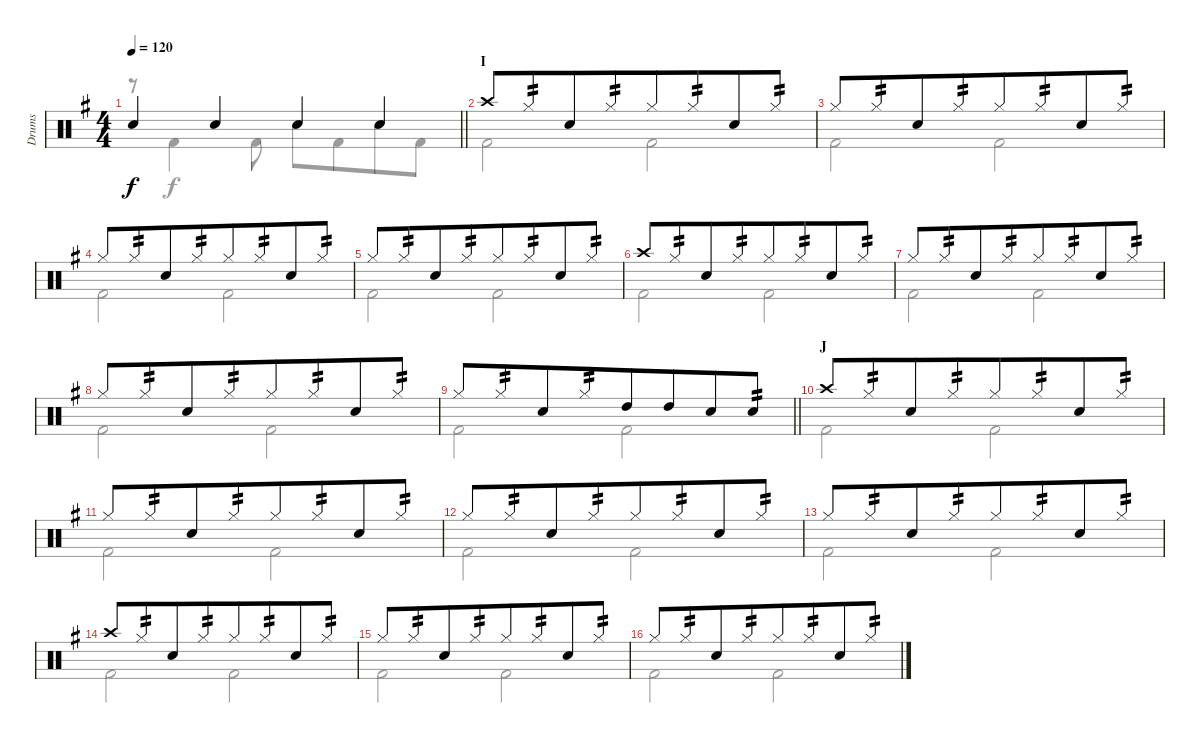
\track ("Drums" "Drums") {instrument percussion}
\staff {score}
\articulation defaults
\voice
\ts (4 4)
\tempo 120
\clef neutral
\barLineRight lightlight
\ks g "Snare (hit)"{t}.4{dy f beam merge} "Snare (hit) 2".4 "Snare (hit) 2".4 "Snare (hit) 2".4
|
\section ("" "I")
"Crash high (hit)".8 "Hi-Hat (closed)".8{tp 2 beam merge} "Snare (hit) 2".8 "Hi-Hat (closed)".8{tp 2 beam merge} "Hi-Hat (closed)".8 "Hi-Hat (closed)".8{tp 2 beam merge} "Snare (hit) 2".8 "Hi-Hat (closed)".8{tp 2} |
"Hi-Hat (closed)".8 "Hi-Hat (closed)".8{tp 2 beam merge} "Snare (hit) 2".8 "Hi-Hat (closed)".8{tp 2 beam merge} "Hi-Hat (closed)".8 "Hi-Hat (closed)".8{tp 2 beam merge} "Snare (hit) 2".8 "Hi-Hat (closed)".8{tp 2} |
"Hi-Hat (closed)".8 "Hi-Hat (closed)".8{tp 2 beam merge} "Snare (hit) 2".8 "Hi-Hat (closed)".8{tp 2 beam merge} "Hi-Hat (closed)".8 "Hi-Hat (closed)".8{tp 2 beam merge} "Snare (hit) 2".8 "Hi-Hat (closed)".8{tp 2} |
"Hi-Hat (closed)".8 "Hi-Hat (closed)".8{tp 2 beam merge} "Snare (hit) 2".8 "Hi-Hat (closed)".8{tp 2 beam merge} "Hi-Hat (closed)".8 "Hi-Hat (closed)".8{tp 2 beam merge} "Snare (hit) 2".8 "Hi-Hat (closed)".8{tp 2} |
"Crash high (hit)".8 "Hi-Hat (closed)".8{tp 2 beam merge} "Snare (hit) 2".8 "Hi-Hat (closed)".8{tp 2 beam merge} "Hi-Hat (closed)".8 "Hi-Hat (closed)".8{tp 2 beam merge} "Snare (hit) 2".8 "Hi-Hat (closed)".8{tp 2} |
"Hi-Hat (closed)".8 "Hi-Hat (closed)".8{tp 2 beam merge} "Snare (hit) 2".8 "Hi-Hat (closed)".8{tp 2 beam merge} "Hi-Hat (closed)".8 "Hi-Hat (closed)".8{tp 2 beam merge} "Snare (hit) 2".8 "Hi-Hat (closed)".8{tp 2} |
"Hi-Hat (closed)".8 "Hi-Hat (closed)".8{tp 2 beam merge} "Snare (hit) 2".8 "Hi-Hat (closed)".8{tp 2 beam merge} "Hi-Hat (closed)".8 "Hi-Hat (closed)".8{tp 2 beam merge} "Snare (hit) 2".8 "Hi-Hat (closed)".8{tp 2} |
\barLineRight lightlight "Hi-Hat (closed)".8 "Hi-Hat (closed)".8{tp 2 beam merge} "Snare (hit) 2".8 "Hi-Hat (closed)".8{tp 2 beam merge} "High Tom (hit)".8 "High Tom (hit)".8{beam merge} "Snare (hit) 2".8 "Electric Snare (hit)".8{tp 2}
|
\section ("" "J")
"Crash high (hit)".8 "Hi-Hat (closed)".8{tp 2 beam merge} "Snare (hit) 2".8 "Hi-Hat (closed)".8{tp 2 beam merge} "Hi-Hat (closed)".8 "Hi-Hat (closed)".8{tp 2 beam merge} "Snare (hit) 2".8 "Hi-Hat (closed)".8{tp 2} |
"Hi-Hat (closed)".8 "Hi-Hat (closed)".8{tp 2 beam merge} "Snare (hit) 2".8 "Hi-Hat (closed)".8{tp 2 beam merge} "Hi-Hat (closed)".8 "Hi-Hat (closed)".8{tp 2 beam merge} "Snare (hit) 2".8 "Hi-Hat (closed)".8{tp 2} |
"Hi-Hat (closed)".8 "Hi-Hat (closed)".8{tp 2 beam merge} "Snare (hit) 2".8 "Hi-Hat (closed)".8{tp 2 beam merge} "Hi-Hat (closed)".8 "Hi-Hat (closed)".8{tp 2 beam merge} "Snare (hit) 2".8 "Hi-Hat (closed)".8{tp 2} |
"Hi-Hat (closed)".8 "Hi-Hat (closed)".8{tp 2 beam merge} "Snare (hit) 2".8 "Hi-Hat (closed)".8{tp 2 beam merge} "Hi-Hat (closed)".8 "Hi-Hat (closed)".8{tp 2 beam merge} "Snare (hit) 2".8 "Hi-Hat (closed)".8{tp 2} |
"Crash high (hit)".8 "Hi-Hat (closed)".8{tp 2 beam merge} "Snare (hit) 2".8 "Hi-Hat (closed)".8{tp 2 beam merge} "Hi-Hat (closed)".8 "Hi-Hat (closed)".8{tp 2 beam merge} "Snare (hit) 2".8 "Hi-Hat (closed)".8{tp 2} |
"Hi-Hat (closed)".8 "Hi-Hat (closed)".8{tp 2 beam merge} "Snare (hit) 2".8 "Hi-Hat (closed)".8{tp 2 beam merge} "Hi-Hat (closed)".8 "Hi-Hat (closed)".8{tp 2 beam merge} "Snare (hit) 2".8 "Hi-Hat (closed)".8{tp 2} |
"Hi-Hat (closed)".8 "Hi-Hat (closed)".8{tp 2 beam merge} "Snare (hit) 2".8 "Hi-Hat (closed)".8{tp 2 beam merge} "Hi-Hat (closed)".8 "Hi-Hat (closed)".8{tp 2 beam merge} "Snare (hit) 2".8 "Hi-Hat (closed)".8{tp 2}
\voice
\clef neutral
\ottava regular
\simile none
\barLineRight lightlight
\ks g
r.8{dy f} "Kick (hit) 2".4 "Kick (hit) 2".8 "Electric Snare (hit)".8 "Kick (hit) 2".8{beam merge} "Electric Snare (hit)".8 "Kick (hit) 2".8 |
"Kick (hit) 2".2 "Kick (hit) 2".2 |
"Kick (hit) 2".2 "Kick (hit) 2".2 |
"Kick (hit) 2".2 "Kick (hit) 2".2 |
"Kick (hit) 2".2 "Kick (hit) 2".2 |
"Kick (hit) 2".2 "Kick (hit) 2".2 |
"Kick (hit) 2".2 "Kick (hit) 2".2 |
"Kick (hit) 2".2 "Kick (hit) 2".2 |
\barLineRight lightlight "Kick (hit) 2".2 "Kick (hit) 2".2
|
"Kick (hit) 2".2 "Kick (hit) 2".2 |
"Kick (hit) 2".2 "Kick (hit) 2".2 |
"Kick (hit) 2".2 "Kick (hit) 2".2 |
"Kick (hit) 2".2 "Kick (hit) 2".2 |
"Kick (hit) 2".2 "Kick (hit) 2".2 |
"Kick (hit) 2".2 "Kick (hit) 2".2 |
"Kick (hit) 2".2 "Kick (hit) 2".2
